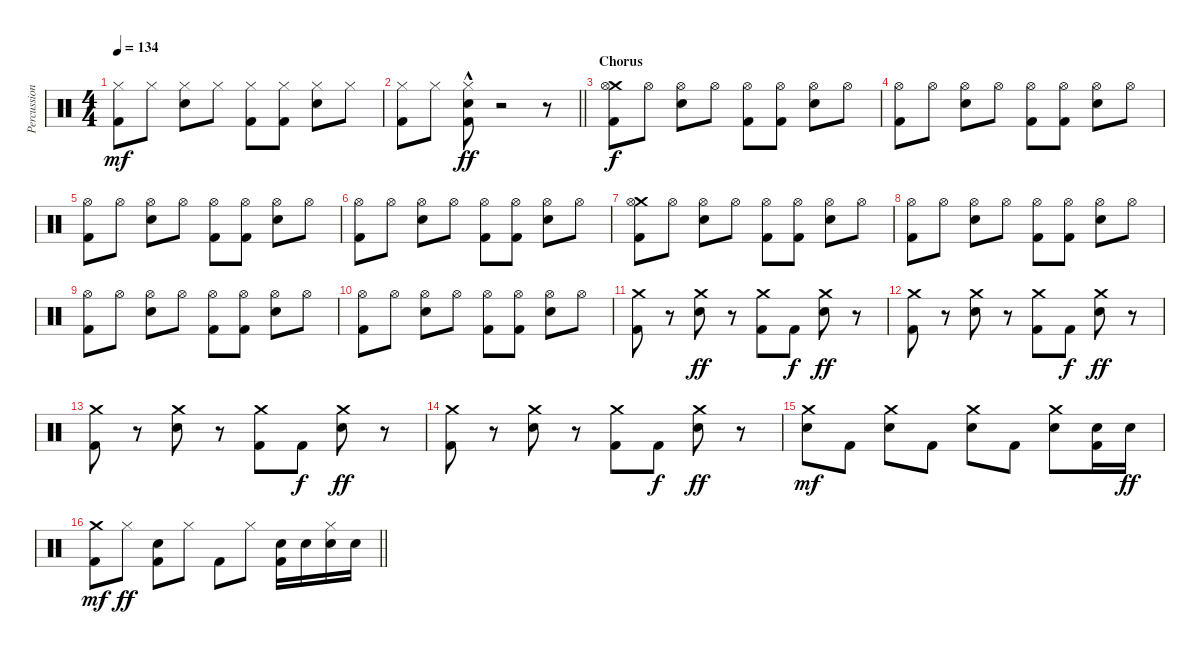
\track ("Percussion" "Percussion") {instrument percussion}
\staff {score}
\articulation defaults
\ts (4 4)
\tempo 134
\clef neutral
\ks c
("Hi-Hat (closed)" "Kick (hit) 2").8{dy mf} "Hi-Hat (closed)".8 ("Hi-Hat (closed)" "Snare (hit) 2").8 "Hi-Hat (closed)".8 ("Hi-Hat (closed)" "Kick (hit) 2").8 ("Hi-Hat (closed)" "Kick (hit) 2").8 ("Hi-Hat (closed)" "Snare (hit) 2").8 "Hi-Hat (closed)".8 |
\barLineRight lightlight
("Hi-Hat (closed)" "Kick (hit) 2").8 "Hi-Hat (closed)".8 ("Hi-Hat (closed)"{hac} "Snare (hit) 2"{hac} "Kick (hit) 2"{hac}).8{dy ff} r.2 r.8 |
\section ("" "Chorus")
("Crash medium (hit)" "Hi-Hat (open)" "Kick (hit) 2").8{dy f} "Hi-Hat (open)".8 ("Hi-Hat (open)" "Snare (hit) 2").8 "Hi-Hat (open)".8 ("Hi-Hat (open)" "Kick (hit) 2").8 ("Hi-Hat (open)" "Kick (hit) 2").8 ("Hi-Hat (open)" "Snare (hit) 2").8 "Hi-Hat (open)".8 |
("Hi-Hat (open)" "Kick (hit) 2").8 "Hi-Hat (open)".8 ("Hi-Hat (open)" "Snare (hit) 2").8 "Hi-Hat (open)".8 ("Hi-Hat (open)" "Kick (hit) 2").8 ("Hi-Hat (open)" "Kick (hit) 2").8 ("Hi-Hat (open)" "Snare (hit) 2").8 "Hi-Hat (open)".8 |
("Hi-Hat (open)" "Kick (hit) 2").8 "Hi-Hat (open)".8 ("Hi-Hat (open)" "Snare (hit) 2").8 "Hi-Hat (open)".8 ("Hi-Hat (open)" "Kick (hit) 2").8 ("Hi-Hat (open)" "Kick (hit) 2").8 ("Hi-Hat (open)" "Snare (hit) 2").8 "Hi-Hat (open)".8 |
("Hi-Hat (open)" "Kick (hit) 2").8 "Hi-Hat (open)".8 ("Hi-Hat (open)" "Snare (hit) 2").8 "Hi-Hat (open)".8 ("Hi-Hat (open)" "Kick (hit) 2").8 ("Hi-Hat (open)" "Kick (hit) 2").8 ("Hi-Hat (open)" "Snare (hit) 2").8 "Hi-Hat (open)".8 |
("Crash medium (hit)" "Hi-Hat (open)" "Kick (hit) 2").8 "Hi-Hat (open)".8 ("Hi-Hat (open)" "Snare (hit) 2").8 "Hi-Hat (open)".8 ("Hi-Hat (open)" "Kick (hit) 2").8 ("Hi-Hat (open)" "Kick (hit) 2").8 ("Hi-Hat (open)" "Snare (hit) 2").8 "Hi-Hat (open)".8 |
("Hi-Hat (open)" "Kick (hit) 2").8 "Hi-Hat (open)".8 ("Hi-Hat (open)" "Snare (hit) 2").8 "Hi-Hat (open)".8 ("Hi-Hat (open)" "Kick (hit) 2").8 ("Hi-Hat (open)" "Kick (hit) 2").8 ("Hi-Hat (open)" "Snare (hit) 2").8 "Hi-Hat (open)".8 |
("Hi-Hat (open)" "Kick (hit) 2").8 "Hi-Hat (open)".8 ("Hi-Hat (open)" "Snare (hit) 2").8 "Hi-Hat (open)".8 ("Hi-Hat (open)" "Kick (hit) 2").8 ("Hi-Hat (open)" "Kick (hit) 2").8 ("Hi-Hat (open)" "Snare (hit) 2").8 "Hi-Hat (open)".8 |
("Hi-Hat (open)" "Kick (hit) 2").8 "Hi-Hat (open)".8 ("Hi-Hat (open)" "Snare (hit) 2").8 "Hi-Hat (open)".8 ("Hi-Hat (open)" "Kick (hit) 2").8 ("Hi-Hat (open)" "Kick (hit) 2").8 ("Hi-Hat (open)" "Snare (hit) 2").8 "Hi-Hat (open)".8 |
("Crash medium (hit)" "Kick (hit) 2").8 r.8 ("Crash medium (hit)" "Snare (hit) 2").8{dy ff} r.8 ("Crash medium (hit)" "Kick (hit) 2").8 "Kick (hit) 2".8{dy f} ("Crash medium (hit)" "Snare (hit) 2").8{dy ff} r.8 |
("Crash medium (hit)" "Kick (hit) 2").8 r.8 ("Crash medium (hit)" "Snare (hit) 2").8 r.8 ("Crash medium (hit)" "Kick (hit) 2").8 "Kick (hit) 2".8{dy f} ("Crash medium (hit)" "Snare (hit) 2").8{dy ff} r.8 |
("Crash medium (hit)" "Kick (hit) 2").8 r.8 ("Crash medium (hit)" "Snare (hit) 2").8 r.8 ("Crash medium (hit)" "Kick (hit) 2").8 "Kick (hit) 2".8{dy f} ("Crash medium (hit)" "Snare (hit) 2").8{dy ff} r.8 |
("Crash medium (hit)" "Kick (hit) 2").8 r.8 ("Crash medium (hit)" "Snare (hit) 2").8 r.8 ("Crash medium (hit)" "Kick (hit) 2").8 "Kick (hit) 2".8{dy f} ("Crash medium (hit)" "Snare (hit) 2").8{dy ff} r.8 |
("Crash medium (hit)" "Snare (hit) 2").8{dy mf} "Kick (hit) 2".8 ("Crash medium (hit)" "Snare (hit) 2").8 "Kick (hit) 2".8 ("Crash medium (hit)" "Snare (hit) 2").8 "Kick (hit) 2".8 ("Crash medium (hit)" "Snare (hit) 2").8 ("Snare (hit) 2" "Kick (hit) 2").16 "Snare (hit) 2".16{dy ff} |
\barLineRight lightlight
("Crash medium (hit)" "Kick (hit) 2").8{dy mf} "Hi-Hat (closed)".8{dy ff} ("Snare (hit) 2" "Kick (hit) 2").8 "Hi-Hat (closed)".8 "Kick (hit) 2".8 "Hi-Hat (closed)".8 ("Snare (hit) 2" "Kick (hit) 2").16 "Snare (hit) 2".16 ("Hi-Hat (closed)" "Snare (hit) 2").16 "Snare (hit) 2".16
